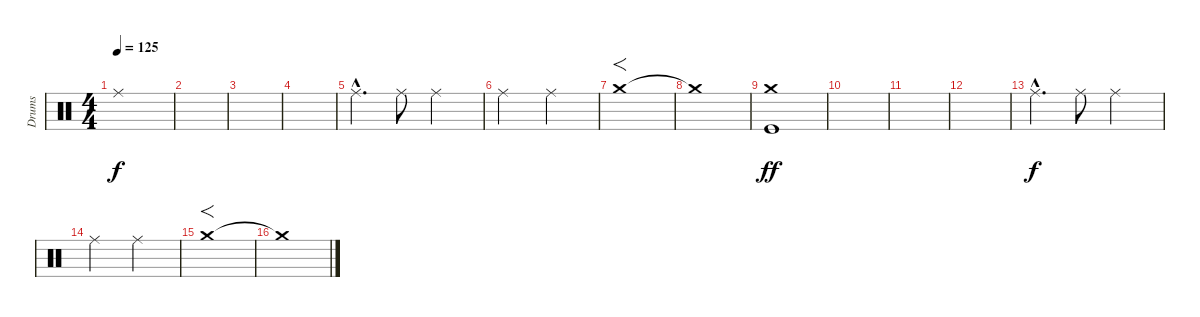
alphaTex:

\track ("Drums" "Drums") {instrument percussion}
\staff {score}
\articulation defaults
\ts (4 4)
\tempo 125
\clef neutral
\ks c "Ride (middle)".1{dy f}
|
|
|
|
"Ride (middle)"{hac}.4{d} "Ride (middle)".8 "Ride (middle)".2 |
"Ride (middle)".2 "Ride (middle)".2 |
"Crash medium (hit)".1{f} |
"Crash medium (hit)"{t}.1 |
("Crash medium (hit)" "Kick (hit)").1{dy ff} |
|
|
|
"Ride (middle)"{hac}.4{d dy f} "Ride (middle)".8 "Ride (middle)".2 |
"Ride (middle)".2 "Ride (middle)".2 |
"Crash medium (hit)".1{f} |
"Crash medium (hit)"{t}.1
